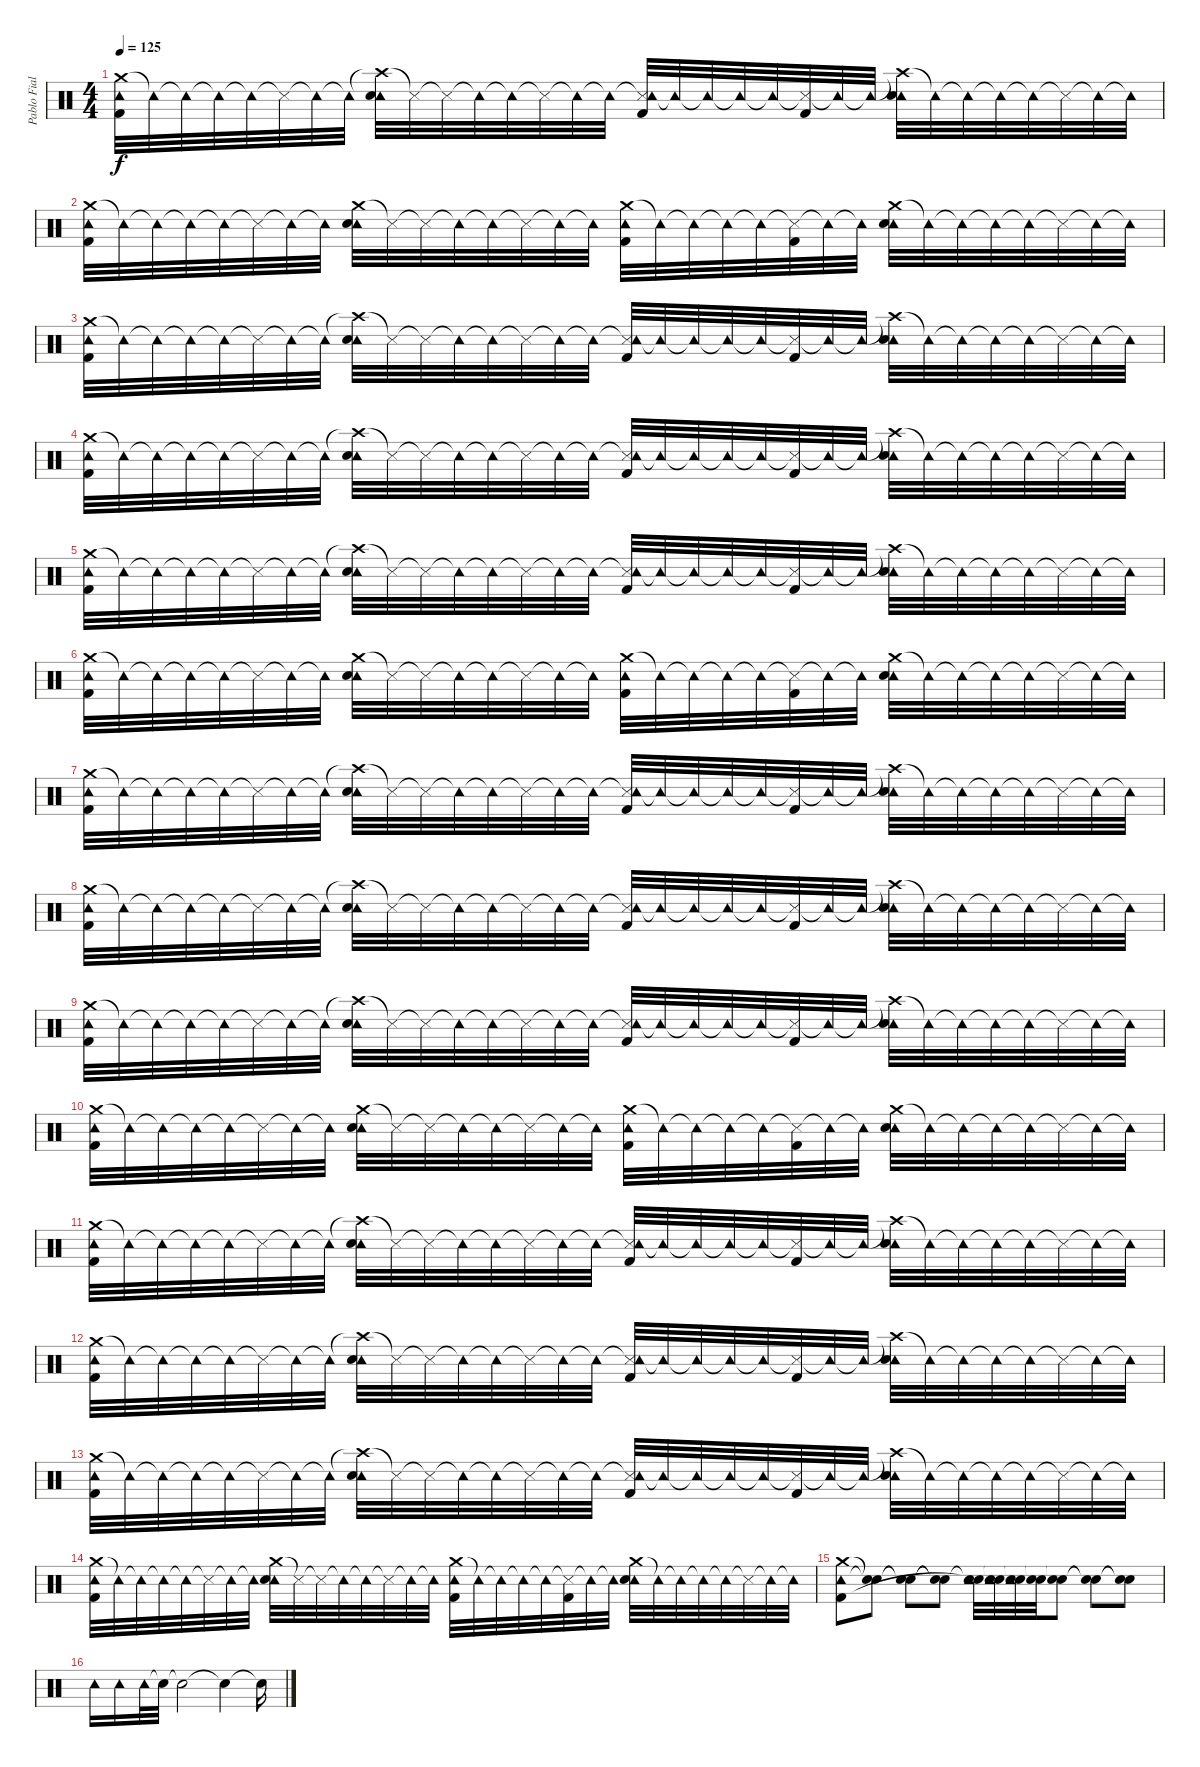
\track ("Pablo Fiallo" "Pablo Fial") {instrument percussion}
\staff {score}
\articulation defaults
\ts (4 4)
\tempo 125
\clef neutral
\ks c
("Crash medium (hit)" "Tambourine (hit)" "Kick (hit) 2").32{dy f} "Tambourine (hit)"{t}.32 "Tambourine (hit)"{t}.32 "Tambourine (hit)"{t}.32 "Tambourine (hit)"{t}.32 "Snare (side stick) 3"{t}.32 "Tambourine (hit)"{t}.32 "Tambourine (hit)"{t}.32 ("Crash high (hit)"{t} "Tambourine (hit)" "Snare (hit) 2").32 "Snare (side stick) 3"{t}.32 "Snare (side stick) 3"{t}.32 "Tambourine (hit)"{t}.32 "Tambourine (hit)"{t}.32 "Snare (side stick) 3"{t}.32 "Tambourine (hit)"{t}.32 "Tambourine (hit)"{t}.32 ("Snare (side stick) 3"{t} "Tambourine (hit)" "Kick (hit) 2").32 "Tambourine (hit)"{t}.32 "Tambourine (hit)"{t}.32 "Tambourine (hit)"{t}.32 "Tambourine (hit)"{t}.32 ("Snare (side stick) 3"{t} "Kick (hit) 2").32 "Tambourine (hit)"{t}.32 "Tambourine (hit)"{t}.32 ("Crash high (hit)"{t} "Tambourine (hit)" "Snare (hit) 2").32 "Tambourine (hit)"{t}.32 "Tambourine (hit)"{t}.32 "Tambourine (hit)"{t}.32 "Tambourine (hit)"{t}.32 "Snare (side stick) 3"{t}.32 "Tambourine (hit)"{t}.32 "Tambourine (hit)"{t}.32 |
("Crash medium (hit)" "Tambourine (hit)" "Kick (hit) 2").32 "Tambourine (hit)"{t}.32 "Tambourine (hit)"{t}.32 "Tambourine (hit)"{t}.32 "Tambourine (hit)"{t}.32 "Snare (side stick) 3"{t}.32 "Tambourine (hit)"{t}.32 "Tambourine (hit)"{t}.32 ("Crash medium (hit)" "Tambourine (hit)" "Snare (hit) 2").32 "Snare (side stick) 3"{t}.32 "Snare (side stick) 3"{t}.32 "Tambourine (hit)"{t}.32 "Tambourine (hit)"{t}.32 "Snare (side stick) 3"{t}.32 "Tambourine (hit)"{t}.32 "Tambourine (hit)"{t}.32 ("Crash medium (hit)" "Tambourine (hit)" "Kick (hit) 2").32 "Tambourine (hit)"{t}.32 "Tambourine (hit)"{t}.32 "Tambourine (hit)"{t}.32 "Tambourine (hit)"{t}.32 ("Snare (side stick) 3"{t} "Kick (hit) 2").32 "Tambourine (hit)"{t}.32 "Tambourine (hit)"{t}.32 ("Crash medium (hit)" "Tambourine (hit)" "Snare (hit) 2").32 "Tambourine (hit)"{t}.32 "Tambourine (hit)"{t}.32 "Tambourine (hit)"{t}.32 "Tambourine (hit)"{t}.32 "Snare (side stick) 3"{t}.32 "Tambourine (hit)"{t}.32 "Tambourine (hit)"{t}.32 |
("Crash medium (hit)" "Tambourine (hit)" "Kick (hit) 2").32 "Tambourine (hit)"{t}.32 "Tambourine (hit)"{t}.32 "Tambourine (hit)"{t}.32 "Tambourine (hit)"{t}.32 "Snare (side stick) 3"{t}.32 "Tambourine (hit)"{t}.32 "Tambourine (hit)"{t}.32 ("Crash high (hit)"{t} "Tambourine (hit)" "Snare (hit) 2").32 "Snare (side stick) 3"{t}.32 "Snare (side stick) 3"{t}.32 "Tambourine (hit)"{t}.32 "Tambourine (hit)"{t}.32 "Snare (side stick) 3"{t}.32 "Tambourine (hit)"{t}.32 "Tambourine (hit)"{t}.32 ("Snare (side stick) 3"{t} "Tambourine (hit)" "Kick (hit) 2").32 "Tambourine (hit)"{t}.32 "Tambourine (hit)"{t}.32 "Tambourine (hit)"{t}.32 "Tambourine (hit)"{t}.32 ("Snare (side stick) 3"{t} "Kick (hit) 2").32 "Tambourine (hit)"{t}.32 "Tambourine (hit)"{t}.32 ("Crash high (hit)"{t} "Tambourine (hit)" "Snare (hit) 2").32 "Tambourine (hit)"{t}.32 "Tambourine (hit)"{t}.32 "Tambourine (hit)"{t}.32 "Tambourine (hit)"{t}.32 "Snare (side stick) 3"{t}.32 "Tambourine (hit)"{t}.32 "Tambourine (hit)"{t}.32 |
("Crash medium (hit)" "Tambourine (hit)" "Kick (hit) 2").32 "Tambourine (hit)"{t}.32 "Tambourine (hit)"{t}.32 "Tambourine (hit)"{t}.32 "Tambourine (hit)"{t}.32 "Snare (side stick) 3"{t}.32 "Tambourine (hit)"{t}.32 "Tambourine (hit)"{t}.32 ("Crash high (hit)"{t} "Tambourine (hit)" "Snare (hit) 2").32 "Snare (side stick) 3"{t}.32 "Snare (side stick) 3"{t}.32 "Tambourine (hit)"{t}.32 "Tambourine (hit)"{t}.32 "Snare (side stick) 3"{t}.32 "Tambourine (hit)"{t}.32 "Tambourine (hit)"{t}.32 ("Snare (side stick) 3"{t} "Tambourine (hit)" "Kick (hit) 2").32 "Tambourine (hit)"{t}.32 "Tambourine (hit)"{t}.32 "Tambourine (hit)"{t}.32 "Tambourine (hit)"{t}.32 ("Snare (side stick) 3"{t} "Kick (hit) 2").32 "Tambourine (hit)"{t}.32 "Tambourine (hit)"{t}.32 ("Crash high (hit)"{t} "Tambourine (hit)" "Snare (hit) 2").32 "Tambourine (hit)"{t}.32 "Tambourine (hit)"{t}.32 "Tambourine (hit)"{t}.32 "Tambourine (hit)"{t}.32 "Snare (side stick) 3"{t}.32 "Tambourine (hit)"{t}.32 "Tambourine (hit)"{t}.32 |
("Crash medium (hit)" "Tambourine (hit)" "Kick (hit) 2").32 "Tambourine (hit)"{t}.32 "Tambourine (hit)"{t}.32 "Tambourine (hit)"{t}.32 "Tambourine (hit)"{t}.32 "Snare (side stick) 3"{t}.32 "Tambourine (hit)"{t}.32 "Tambourine (hit)"{t}.32 ("Crash high (hit)"{t} "Tambourine (hit)" "Snare (hit) 2").32 "Snare (side stick) 3"{t}.32 "Snare (side stick) 3"{t}.32 "Tambourine (hit)"{t}.32 "Tambourine (hit)"{t}.32 "Snare (side stick) 3"{t}.32 "Tambourine (hit)"{t}.32 "Tambourine (hit)"{t}.32 ("Snare (side stick) 3"{t} "Tambourine (hit)" "Kick (hit) 2").32 "Tambourine (hit)"{t}.32 "Tambourine (hit)"{t}.32 "Tambourine (hit)"{t}.32 "Tambourine (hit)"{t}.32 ("Snare (side stick) 3"{t} "Kick (hit) 2").32 "Tambourine (hit)"{t}.32 "Tambourine (hit)"{t}.32 ("Crash high (hit)"{t} "Tambourine (hit)" "Snare (hit) 2").32 "Tambourine (hit)"{t}.32 "Tambourine (hit)"{t}.32 "Tambourine (hit)"{t}.32 "Tambourine (hit)"{t}.32 "Snare (side stick) 3"{t}.32 "Tambourine (hit)"{t}.32 "Tambourine (hit)"{t}.32 |
("Crash medium (hit)" "Tambourine (hit)" "Kick (hit) 2").32 "Tambourine (hit)"{t}.32 "Tambourine (hit)"{t}.32 "Tambourine (hit)"{t}.32 "Tambourine (hit)"{t}.32 "Snare (side stick) 3"{t}.32 "Tambourine (hit)"{t}.32 "Tambourine (hit)"{t}.32 ("Crash medium (hit)" "Tambourine (hit)" "Snare (hit) 2").32 "Snare (side stick) 3"{t}.32 "Snare (side stick) 3"{t}.32 "Tambourine (hit)"{t}.32 "Tambourine (hit)"{t}.32 "Snare (side stick) 3"{t}.32 "Tambourine (hit)"{t}.32 "Tambourine (hit)"{t}.32 ("Crash medium (hit)" "Tambourine (hit)" "Kick (hit) 2").32 "Tambourine (hit)"{t}.32 "Tambourine (hit)"{t}.32 "Tambourine (hit)"{t}.32 "Tambourine (hit)"{t}.32 ("Snare (side stick) 3"{t} "Kick (hit) 2").32 "Tambourine (hit)"{t}.32 "Tambourine (hit)"{t}.32 ("Crash medium (hit)" "Tambourine (hit)" "Snare (hit) 2").32 "Tambourine (hit)"{t}.32 "Tambourine (hit)"{t}.32 "Tambourine (hit)"{t}.32 "Tambourine (hit)"{t}.32 "Snare (side stick) 3"{t}.32 "Tambourine (hit)"{t}.32 "Tambourine (hit)"{t}.32 |
("Crash medium (hit)" "Tambourine (hit)" "Kick (hit) 2").32 "Tambourine (hit)"{t}.32 "Tambourine (hit)"{t}.32 "Tambourine (hit)"{t}.32 "Tambourine (hit)"{t}.32 "Snare (side stick) 3"{t}.32 "Tambourine (hit)"{t}.32 "Tambourine (hit)"{t}.32 ("Crash high (hit)"{t} "Tambourine (hit)" "Snare (hit) 2").32 "Snare (side stick) 3"{t}.32 "Snare (side stick) 3"{t}.32 "Tambourine (hit)"{t}.32 "Tambourine (hit)"{t}.32 "Snare (side stick) 3"{t}.32 "Tambourine (hit)"{t}.32 "Tambourine (hit)"{t}.32 ("Snare (side stick) 3"{t} "Tambourine (hit)" "Kick (hit) 2").32 "Tambourine (hit)"{t}.32 "Tambourine (hit)"{t}.32 "Tambourine (hit)"{t}.32 "Tambourine (hit)"{t}.32 ("Snare (side stick) 3"{t} "Kick (hit) 2").32 "Tambourine (hit)"{t}.32 "Tambourine (hit)"{t}.32 ("Crash high (hit)"{t} "Tambourine (hit)" "Snare (hit) 2").32 "Tambourine (hit)"{t}.32 "Tambourine (hit)"{t}.32 "Tambourine (hit)"{t}.32 "Tambourine (hit)"{t}.32 "Snare (side stick) 3"{t}.32 "Tambourine (hit)"{t}.32 "Tambourine (hit)"{t}.32 |
("Crash medium (hit)" "Tambourine (hit)" "Kick (hit) 2").32 "Tambourine (hit)"{t}.32 "Tambourine (hit)"{t}.32 "Tambourine (hit)"{t}.32 "Tambourine (hit)"{t}.32 "Snare (side stick) 3"{t}.32 "Tambourine (hit)"{t}.32 "Tambourine (hit)"{t}.32 ("Crash high (hit)"{t} "Tambourine (hit)" "Snare (hit) 2").32 "Snare (side stick) 3"{t}.32 "Snare (side stick) 3"{t}.32 "Tambourine (hit)"{t}.32 "Tambourine (hit)"{t}.32 "Snare (side stick) 3"{t}.32 "Tambourine (hit)"{t}.32 "Tambourine (hit)"{t}.32 ("Snare (side stick) 3"{t} "Tambourine (hit)" "Kick (hit) 2").32 "Tambourine (hit)"{t}.32 "Tambourine (hit)"{t}.32 "Tambourine (hit)"{t}.32 "Tambourine (hit)"{t}.32 ("Snare (side stick) 3"{t} "Kick (hit) 2").32 "Tambourine (hit)"{t}.32 "Tambourine (hit)"{t}.32 ("Crash high (hit)"{t} "Tambourine (hit)" "Snare (hit) 2").32 "Tambourine (hit)"{t}.32 "Tambourine (hit)"{t}.32 "Tambourine (hit)"{t}.32 "Tambourine (hit)"{t}.32 "Snare (side stick) 3"{t}.32 "Tambourine (hit)"{t}.32 "Tambourine (hit)"{t}.32 |
("Crash medium (hit)" "Tambourine (hit)" "Kick (hit) 2").32 "Tambourine (hit)"{t}.32 "Tambourine (hit)"{t}.32 "Tambourine (hit)"{t}.32 "Tambourine (hit)"{t}.32 "Snare (side stick) 3"{t}.32 "Tambourine (hit)"{t}.32 "Tambourine (hit)"{t}.32 ("Crash high (hit)"{t} "Tambourine (hit)" "Snare (hit) 2").32 "Snare (side stick) 3"{t}.32 "Snare (side stick) 3"{t}.32 "Tambourine (hit)"{t}.32 "Tambourine (hit)"{t}.32 "Snare (side stick) 3"{t}.32 "Tambourine (hit)"{t}.32 "Tambourine (hit)"{t}.32 ("Snare (side stick) 3"{t} "Tambourine (hit)" "Kick (hit) 2").32 "Tambourine (hit)"{t}.32 "Tambourine (hit)"{t}.32 "Tambourine (hit)"{t}.32 "Tambourine (hit)"{t}.32 ("Snare (side stick) 3"{t} "Kick (hit) 2").32 "Tambourine (hit)"{t}.32 "Tambourine (hit)"{t}.32 ("Crash high (hit)"{t} "Tambourine (hit)" "Snare (hit) 2").32 "Tambourine (hit)"{t}.32 "Tambourine (hit)"{t}.32 "Tambourine (hit)"{t}.32 "Tambourine (hit)"{t}.32 "Snare (side stick) 3"{t}.32 "Tambourine (hit)"{t}.32 "Tambourine (hit)"{t}.32 |
("Crash medium (hit)" "Tambourine (hit)" "Kick (hit) 2").32 "Tambourine (hit)"{t}.32 "Tambourine (hit)"{t}.32 "Tambourine (hit)"{t}.32 "Tambourine (hit)"{t}.32 "Snare (side stick) 3"{t}.32 "Tambourine (hit)"{t}.32 "Tambourine (hit)"{t}.32 ("Crash medium (hit)" "Tambourine (hit)" "Snare (hit) 2").32 "Snare (side stick) 3"{t}.32 "Snare (side stick) 3"{t}.32 "Tambourine (hit)"{t}.32 "Tambourine (hit)"{t}.32 "Snare (side stick) 3"{t}.32 "Tambourine (hit)"{t}.32 "Tambourine (hit)"{t}.32 ("Crash medium (hit)" "Tambourine (hit)" "Kick (hit) 2").32 "Tambourine (hit)"{t}.32 "Tambourine (hit)"{t}.32 "Tambourine (hit)"{t}.32 "Tambourine (hit)"{t}.32 ("Snare (side stick) 3"{t} "Kick (hit) 2").32 "Tambourine (hit)"{t}.32 "Tambourine (hit)"{t}.32 ("Crash medium (hit)" "Tambourine (hit)" "Snare (hit) 2").32 "Tambourine (hit)"{t}.32 "Tambourine (hit)"{t}.32 "Tambourine (hit)"{t}.32 "Tambourine (hit)"{t}.32 "Snare (side stick) 3"{t}.32 "Tambourine (hit)"{t}.32 "Tambourine (hit)"{t}.32 |
("Crash medium (hit)" "Tambourine (hit)" "Kick (hit) 2").32 "Tambourine (hit)"{t}.32 "Tambourine (hit)"{t}.32 "Tambourine (hit)"{t}.32 "Tambourine (hit)"{t}.32 "Snare (side stick) 3"{t}.32 "Tambourine (hit)"{t}.32 "Tambourine (hit)"{t}.32 ("Crash high (hit)"{t} "Tambourine (hit)" "Snare (hit) 2").32 "Snare (side stick) 3"{t}.32 "Snare (side stick) 3"{t}.32 "Tambourine (hit)"{t}.32 "Tambourine (hit)"{t}.32 "Snare (side stick) 3"{t}.32 "Tambourine (hit)"{t}.32 "Tambourine (hit)"{t}.32 ("Snare (side stick) 3"{t} "Tambourine (hit)" "Kick (hit) 2").32 "Tambourine (hit)"{t}.32 "Tambourine (hit)"{t}.32 "Tambourine (hit)"{t}.32 "Tambourine (hit)"{t}.32 ("Snare (side stick) 3"{t} "Kick (hit) 2").32 "Tambourine (hit)"{t}.32 "Tambourine (hit)"{t}.32 ("Crash high (hit)"{t} "Tambourine (hit)" "Snare (hit) 2").32 "Tambourine (hit)"{t}.32 "Tambourine (hit)"{t}.32 "Tambourine (hit)"{t}.32 "Tambourine (hit)"{t}.32 "Snare (side stick) 3"{t}.32 "Tambourine (hit)"{t}.32 "Tambourine (hit)"{t}.32 |
("Crash medium (hit)" "Tambourine (hit)" "Kick (hit) 2").32 "Tambourine (hit)"{t}.32 "Tambourine (hit)"{t}.32 "Tambourine (hit)"{t}.32 "Tambourine (hit)"{t}.32 "Snare (side stick) 3"{t}.32 "Tambourine (hit)"{t}.32 "Tambourine (hit)"{t}.32 ("Crash high (hit)"{t} "Tambourine (hit)" "Snare (hit) 2").32 "Snare (side stick) 3"{t}.32 "Snare (side stick) 3"{t}.32 "Tambourine (hit)"{t}.32 "Tambourine (hit)"{t}.32 "Snare (side stick) 3"{t}.32 "Tambourine (hit)"{t}.32 "Tambourine (hit)"{t}.32 ("Snare (side stick) 3"{t} "Tambourine (hit)" "Kick (hit) 2").32 "Tambourine (hit)"{t}.32 "Tambourine (hit)"{t}.32 "Tambourine (hit)"{t}.32 "Tambourine (hit)"{t}.32 ("Snare (side stick) 3"{t} "Kick (hit) 2").32 "Tambourine (hit)"{t}.32 "Tambourine (hit)"{t}.32 ("Crash high (hit)"{t} "Tambourine (hit)" "Snare (hit) 2").32 "Tambourine (hit)"{t}.32 "Tambourine (hit)"{t}.32 "Tambourine (hit)"{t}.32 "Tambourine (hit)"{t}.32 "Snare (side stick) 3"{t}.32 "Tambourine (hit)"{t}.32 "Tambourine (hit)"{t}.32 |
("Crash medium (hit)" "Tambourine (hit)" "Kick (hit) 2").32 "Tambourine (hit)"{t}.32 "Tambourine (hit)"{t}.32 "Tambourine (hit)"{t}.32 "Tambourine (hit)"{t}.32 "Snare (side stick) 3"{t}.32 "Tambourine (hit)"{t}.32 "Tambourine (hit)"{t}.32 ("Crash high (hit)"{t} "Tambourine (hit)" "Snare (hit) 2").32 "Snare (side stick) 3"{t}.32 "Snare (side stick) 3"{t}.32 "Tambourine (hit)"{t}.32 "Tambourine (hit)"{t}.32 "Snare (side stick) 3"{t}.32 "Tambourine (hit)"{t}.32 "Tambourine (hit)"{t}.32 ("Snare (side stick) 3"{t} "Tambourine (hit)" "Kick (hit) 2").32 "Tambourine (hit)"{t}.32 "Tambourine (hit)"{t}.32 "Tambourine (hit)"{t}.32 "Tambourine (hit)"{t}.32 ("Snare (side stick) 3"{t} "Kick (hit) 2").32 "Tambourine (hit)"{t}.32 "Tambourine (hit)"{t}.32 ("Crash high (hit)"{t} "Tambourine (hit)" "Snare (hit) 2").32 "Tambourine (hit)"{t}.32 "Tambourine (hit)"{t}.32 "Tambourine (hit)"{t}.32 "Tambourine (hit)"{t}.32 "Snare (side stick) 3"{t}.32 "Tambourine (hit)"{t}.32 "Tambourine (hit)"{t}.32 |
("Crash medium (hit)" "Tambourine (hit)" "Kick (hit) 2").32 "Tambourine (hit)"{t}.32 "Tambourine (hit)"{t}.32 "Tambourine (hit)"{t}.32 "Tambourine (hit)"{t}.32 "Snare (side stick) 3"{t}.32 "Tambourine (hit)"{t}.32 "Tambourine (hit)"{t}.32 ("Crash medium (hit)" "Tambourine (hit)" "Snare (hit) 2").32 "Snare (side stick) 3"{t}.32 "Snare (side stick) 3"{t}.32 "Tambourine (hit)"{t}.32 "Tambourine (hit)"{t}.32 "Snare (side stick) 3"{t}.32 "Tambourine (hit)"{t}.32 "Tambourine (hit)"{t}.32 ("Crash medium (hit)" "Tambourine (hit)" "Kick (hit) 2").32 "Tambourine (hit)"{t}.32 "Tambourine (hit)"{t}.32 "Tambourine (hit)"{t}.32 "Tambourine (hit)"{t}.32 ("Snare (side stick) 3"{t} "Kick (hit) 2").32 "Tambourine (hit)"{t}.32 "Tambourine (hit)"{t}.32 ("Crash medium (hit)" "Tambourine (hit)" "Snare (hit) 2").32 "Tambourine (hit)"{t}.32 "Tambourine (hit)"{t}.32 "Tambourine (hit)"{t}.32 "Tambourine (hit)"{t}.32 "Snare (side stick) 3"{t}.32 "Tambourine (hit)"{t}.32 "Tambourine (hit)"{t}.32 |
("Crash medium (hit)" "Tambourine (hit)" "Kick (hit) 2").8 ("Snare (hit)"{t} "Snare (hit)"{t}).8 ("Snare (hit)"{t} "Snare (hit)"{t}).8 ("Snare (hit)"{t} "Snare (hit)"{t}).8 ("Snare (hit)"{t} "Tambourine (hit)" "Snare (hit)"{t}).32 ("Snare (hit)"{t} "Tambourine (hit)" "Snare (hit)"{t}).32 ("Snare (hit)"{t} "Tambourine (hit)" "Snare (hit)"{t}).32 ("Snare (hit)"{t} "Snare (hit)"{t}).32 ("Snare (hit)"{t} "Snare (hit)"{t}).8 ("Snare (hit)"{t} "Snare (hit)"{t}).8 ("Snare (hit)"{t} "Snare (hit)"{t}).8 |
"Tambourine (hit)".16 "Tambourine (hit)".16 "Tambourine (hit)".32 "Snare (hit)"{t}.32 "Snare (hit)"{t}.2 "Snare (hit)"{t}.4 "Snare (hit)"{t}.16
